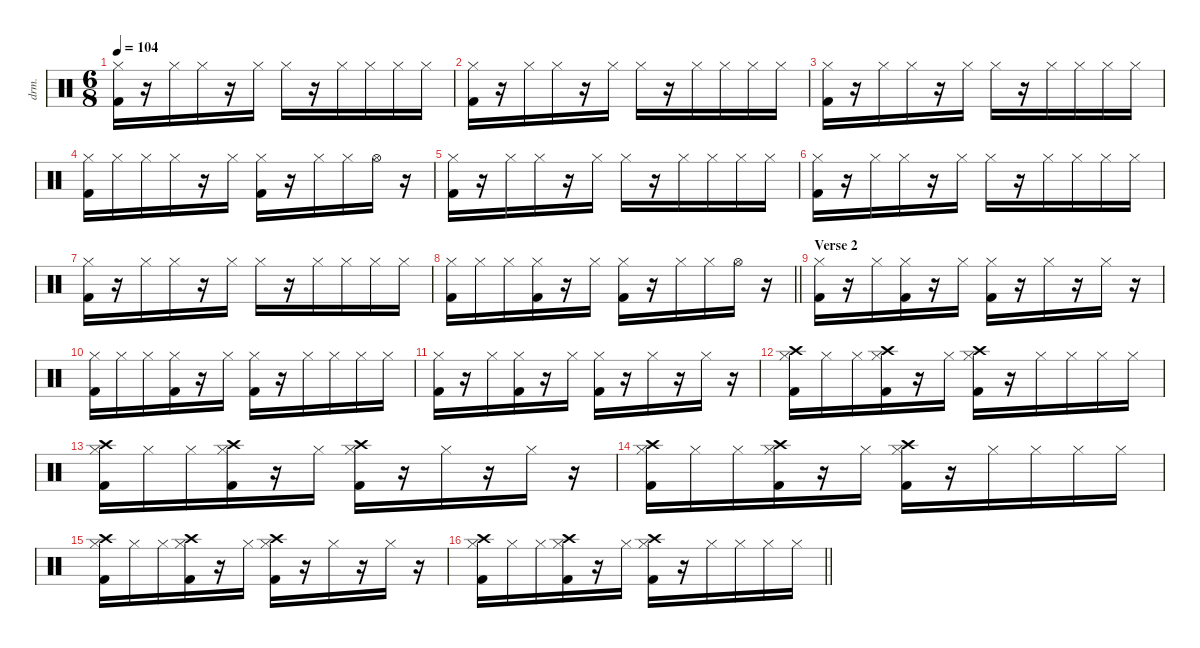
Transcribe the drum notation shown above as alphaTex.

\defaultSystemsLayout 4
\hideDynamics
\bracketExtendMode nobrackets
\otherSystemsTrackNameOrientation horizontal
\track ("Gene Hoglan" "drm.") {instrument percussion}
\staff {score}
\articulation defaults
\ts (6 8)
\tempo 104
\clef neutral
\ks c
("Hi-Hat (closed)" "Kick (hit) 2").16{dy f beam Down} r.16{beam Down} "Hi-Hat (closed)".16{beam Down} "Hi-Hat (closed)".16{beam Down} r.16{beam Down} "Hi-Hat (closed)".16{beam Down} "Hi-Hat (closed)".16{beam Down} r.16{beam Down} "Hi-Hat (closed)".16{beam Down} "Hi-Hat (closed)".16{beam Down} "Hi-Hat (closed)".16{beam Down} "Hi-Hat (closed)".16{beam Down} |
("Hi-Hat (closed)" "Kick (hit) 2").16{beam Down} r.16{beam Down} "Hi-Hat (closed)".16{beam Down} "Hi-Hat (closed)".16{beam Down} r.16{beam Down} "Hi-Hat (closed)".16{beam Down} "Hi-Hat (closed)".16{beam Down} r.16{beam Down} "Hi-Hat (closed)".16{beam Down} "Hi-Hat (closed)".16{beam Down} "Hi-Hat (closed)".16{beam Down} "Hi-Hat (closed)".16{beam Down} |
("Hi-Hat (closed)" "Kick (hit) 2").16{beam Down} r.16{beam Down} "Hi-Hat (closed)".16{beam Down} "Hi-Hat (closed)".16{beam Down} r.16{beam Down} "Hi-Hat (closed)".16{beam Down} "Hi-Hat (closed)".16{beam Down} r.16{beam Down} "Hi-Hat (closed)".16{beam Down} "Hi-Hat (closed)".16{beam Down} "Hi-Hat (closed)".16{beam Down} "Hi-Hat (closed)".16{beam Down} |
("Hi-Hat (closed)" "Kick (hit) 2").16{beam Down} "Hi-Hat (closed)".16{beam Down} "Hi-Hat (closed)".16{beam Down} "Hi-Hat (closed)".16{beam Down} r.16{beam Down} "Hi-Hat (closed)".16{beam Down} ("Hi-Hat (closed)" "Kick (hit) 2").16{beam Down} r.16{beam Down} "Hi-Hat (closed)".16{beam Down} "Hi-Hat (closed)".16{beam Down} "Hi-Hat (open)".16{beam Down} r.16{beam Down} |
("Hi-Hat (closed)" "Kick (hit) 2").16{beam Down} r.16{beam Down} "Hi-Hat (closed)".16{beam Down} "Hi-Hat (closed)".16{beam Down} r.16{beam Down} "Hi-Hat (closed)".16{beam Down} "Hi-Hat (closed)".16{beam Down} r.16{beam Down} "Hi-Hat (closed)".16{beam Down} "Hi-Hat (closed)".16{beam Down} "Hi-Hat (closed)".16{beam Down} "Hi-Hat (closed)".16{beam Down} |
("Hi-Hat (closed)" "Kick (hit) 2").16{beam Down} r.16{beam Down} "Hi-Hat (closed)".16{beam Down} "Hi-Hat (closed)".16{beam Down} r.16{beam Down} "Hi-Hat (closed)".16{beam Down} "Hi-Hat (closed)".16{beam Down} r.16{beam Down} "Hi-Hat (closed)".16{beam Down} "Hi-Hat (closed)".16{beam Down} "Hi-Hat (closed)".16{beam Down} "Hi-Hat (closed)".16{beam Down} |
("Hi-Hat (closed)" "Kick (hit) 2").16{beam Down} r.16{beam Down} "Hi-Hat (closed)".16{beam Down} "Hi-Hat (closed)".16{beam Down} r.16{beam Down} "Hi-Hat (closed)".16{beam Down} "Hi-Hat (closed)".16{beam Down} r.16{beam Down} "Hi-Hat (closed)".16{beam Down} "Hi-Hat (closed)".16{beam Down} "Hi-Hat (closed)".16{beam Down} "Hi-Hat (closed)".16{beam Down} |
\barLineRight lightlight
("Hi-Hat (closed)" "Kick (hit) 2").16{beam Down} "Hi-Hat (closed)".16{beam Down} "Hi-Hat (closed)".16{beam Down} ("Hi-Hat (closed)" "Kick (hit) 2").16{beam Down} r.16{beam Down} "Hi-Hat (closed)".16{beam Down} ("Hi-Hat (closed)" "Kick (hit) 2").16{beam Down} r.16{beam Down} "Hi-Hat (closed)".16{beam Down} "Hi-Hat (closed)".16{beam Down} "Hi-Hat (open)".16{beam Down} r.16{beam Down} |
\section ("" "Verse 2")
("Hi-Hat (closed)" "Kick (hit) 2").16{beam Down} r.16{beam Down} "Hi-Hat (closed)".16{beam Down} ("Hi-Hat (closed)" "Kick (hit) 2").16{beam Down} r.16{beam Down} "Hi-Hat (closed)".16{beam Down} ("Hi-Hat (closed)" "Kick (hit) 2").16{beam Down} r.16{beam Down} "Hi-Hat (closed)".16{beam Down} r.16{beam Down} "Hi-Hat (closed)".16{beam Down} r.16{beam Down} |
("Hi-Hat (closed)" "Kick (hit) 2").16{beam Down} "Hi-Hat (closed)".16{beam Down} "Hi-Hat (closed)".16{beam Down} ("Hi-Hat (closed)" "Kick (hit) 2").16{beam Down} r.16{beam Down} "Hi-Hat (closed)".16{beam Down} ("Hi-Hat (closed)" "Kick (hit) 2").16{beam Down} r.16{beam Down} "Hi-Hat (closed)".16{beam Down} "Hi-Hat (closed)".16{beam Down} "Hi-Hat (closed)".16{beam Down} "Hi-Hat (closed)".16{beam Down} |
("Hi-Hat (closed)" "Kick (hit) 2").16{beam Down} r.16{beam Down} "Hi-Hat (closed)".16{beam Down} ("Hi-Hat (closed)" "Kick (hit) 2").16{beam Down} r.16{beam Down} "Hi-Hat (closed)".16{beam Down} ("Hi-Hat (closed)" "Kick (hit) 2").16{beam Down} r.16{beam Down} "Hi-Hat (closed)".16{beam Down} r.16{beam Down} "Hi-Hat (closed)".16{beam Down} r.16{beam Down} |
("Hi-Hat (closed)" "Crash high (hit)" "Kick (hit) 2").16{beam Down} "Hi-Hat (closed)".16{beam Down} "Hi-Hat (closed)".16{beam Down} ("Hi-Hat (closed)" "Crash high (hit)" "Kick (hit) 2").16{beam Down} r.16{beam Down} "Hi-Hat (closed)".16{beam Down} ("Hi-Hat (closed)" "Crash high (hit)" "Kick (hit) 2").16{beam Down} r.16{beam Down} "Hi-Hat (closed)".16{beam Down} "Hi-Hat (closed)".16{beam Down} "Hi-Hat (closed)".16{beam Down} "Hi-Hat (closed)".16{beam Down} |
("Hi-Hat (closed)" "Crash high (hit)" "Kick (hit) 2").16{beam Down} "Hi-Hat (closed)".16{beam Down} "Hi-Hat (closed)".16{beam Down} ("Hi-Hat (closed)" "Crash high (hit)" "Kick (hit) 2").16{beam Down} r.16{beam Down} "Hi-Hat (closed)".16{beam Down} ("Hi-Hat (closed)" "Crash high (hit)" "Kick (hit) 2").16{beam Down} r.16{beam Down} "Hi-Hat (closed)".16{beam Down} r.16{beam Down} "Hi-Hat (closed)".16{beam Down} r.16{beam Down} |
("Hi-Hat (closed)" "Crash high (hit)" "Kick (hit) 2").16{beam Down} "Hi-Hat (closed)".16{beam Down} "Hi-Hat (closed)".16{beam Down} ("Hi-Hat (closed)" "Crash high (hit)" "Kick (hit) 2").16{beam Down} r.16{beam Down} "Hi-Hat (closed)".16{beam Down} ("Hi-Hat (closed)" "Crash high (hit)" "Kick (hit) 2").16{beam Down} r.16{beam Down} "Hi-Hat (closed)".16{beam Down} "Hi-Hat (closed)".16{beam Down} "Hi-Hat (closed)".16{beam Down} "Hi-Hat (closed)".16{beam Down} |
("Hi-Hat (closed)" "Crash high (hit)" "Kick (hit) 2").16{beam Down} "Hi-Hat (closed)".16{beam Down} "Hi-Hat (closed)".16{beam Down} ("Hi-Hat (closed)" "Crash high (hit)" "Kick (hit) 2").16{beam Down} r.16{beam Down} "Hi-Hat (closed)".16{beam Down} ("Hi-Hat (closed)" "Crash high (hit)" "Kick (hit) 2").16{beam Down} r.16{beam Down} "Hi-Hat (closed)".16{beam Down} r.16{beam Down} "Hi-Hat (closed)".16{beam Down} r.16{beam Down} |
\barLineRight lightlight
("Hi-Hat (closed)" "Crash high (hit)" "Kick (hit) 2").16{beam Down} "Hi-Hat (closed)".16{beam Down} "Hi-Hat (closed)".16{beam Down} ("Hi-Hat (closed)" "Crash high (hit)" "Kick (hit) 2").16{beam Down} r.16{beam Down} "Hi-Hat (closed)".16{beam Down} ("Hi-Hat (closed)" "Crash high (hit)" "Kick (hit) 2").16{beam Down} r.16{beam Down} "Hi-Hat (closed)".16{beam Down} "Hi-Hat (closed)".16{beam Down} "Hi-Hat (closed)".16{beam Down} "Hi-Hat (closed)".16{beam Down}
